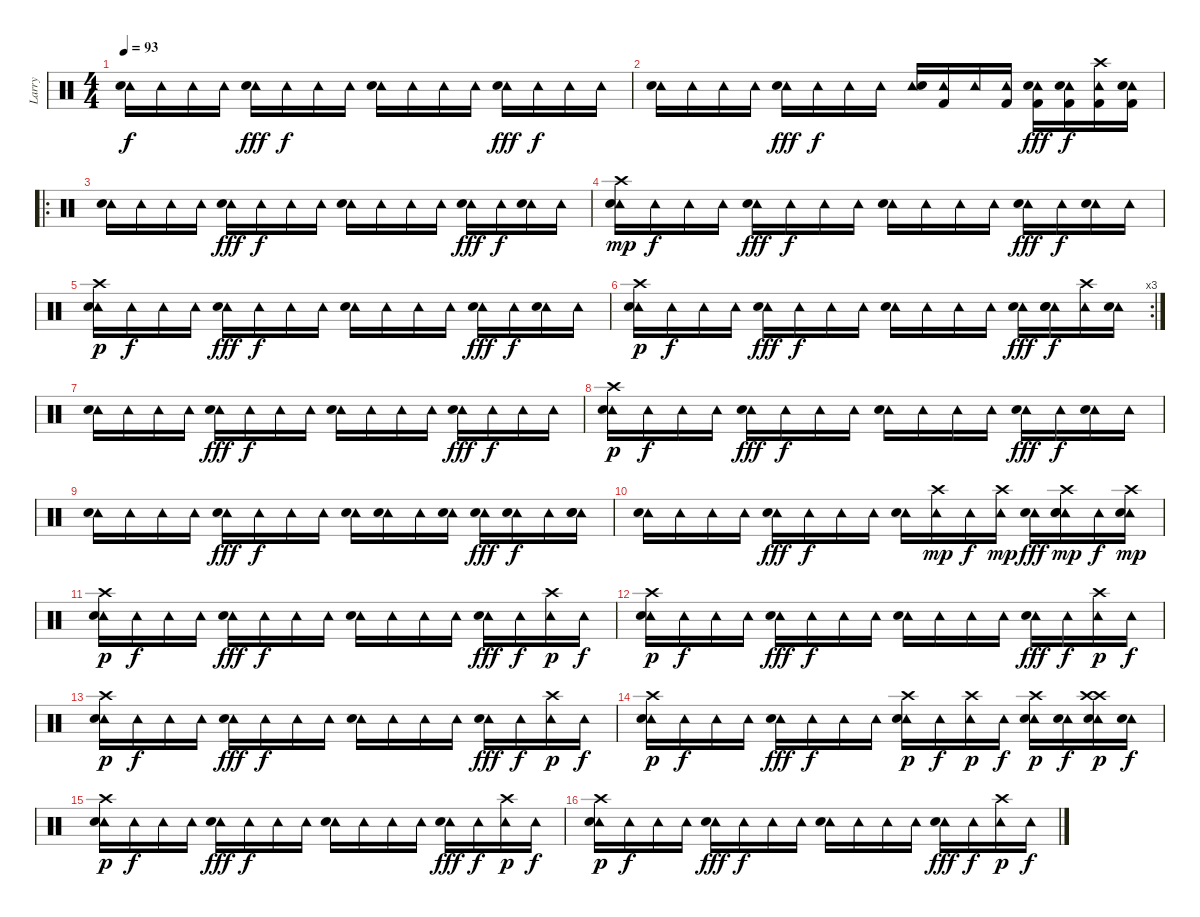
\track ("Larry" "Larry") {instrument percussion}
\staff {score}
\articulation defaults
\ts (4 4)
\tempo 93
\clef neutral
\ks c
("Tambourine (hit)" "Electric Snare (hit)").16{dy f} "Tambourine (hit)".16 "Tambourine (hit)".16 "Tambourine (hit)".16 ("Tambourine (hit)" "Electric Snare (hit)").16{dy fff} "Tambourine (hit)".16{dy f} "Tambourine (hit)".16 "Tambourine (hit)".16 ("Tambourine (hit)" "Electric Snare (hit)").16 "Tambourine (hit)".16 "Tambourine (hit)".16 "Tambourine (hit)".16 ("Tambourine (hit)" "Electric Snare (hit)").16{dy fff} "Tambourine (hit)".16{dy f} "Tambourine (hit)".16 "Tambourine (hit)".16 |
("Tambourine (hit)" "Electric Snare (hit)").16 "Tambourine (hit)".16 "Tambourine (hit)".16 "Tambourine (hit)".16 ("Tambourine (hit)" "Electric Snare (hit)").16{dy fff} "Tambourine (hit)".16{dy f} "Tambourine (hit)".16 "Tambourine (hit)".16 ("Tambourine (hit)" "Electric Snare (hit)").16 ("Tambourine (hit)" "Kick (hit) 2").16 "Tambourine (hit)".16 ("Tambourine (hit)" "Kick (hit) 2").16 ("Tambourine (hit)" "Electric Snare (hit)" "Kick (hit) 2").16{dy fff} ("Tambourine (hit)" "Kick (hit) 2" "Snare (hit) 2").16{dy f} ("Tambourine (hit)" "Kick (hit) 2" "Crash high (hit)").16 ("Tambourine (hit)" "Kick (hit) 2" "Snare (hit) 2").16 |
\ro
("Tambourine (hit)" "Electric Snare (hit)").16 "Tambourine (hit)".16 "Tambourine (hit)".16 "Tambourine (hit)".16 ("Tambourine (hit)" "Electric Snare (hit)").16{dy fff} "Tambourine (hit)".16{dy f} "Tambourine (hit)".16 "Tambourine (hit)".16 ("Tambourine (hit)" "Electric Snare (hit)").16 "Tambourine (hit)".16 "Tambourine (hit)".16 "Tambourine (hit)".16 ("Tambourine (hit)" "Electric Snare (hit)").16{dy fff} "Tambourine (hit)".16{dy f} ("Tambourine (hit)" "Electric Snare (hit)").16 "Tambourine (hit)".16 |
("Tambourine (hit)" "Crash high (hit)" "Electric Snare (hit)").16{dy mp} "Tambourine (hit)".16{dy f} "Tambourine (hit)".16 "Tambourine (hit)".16 ("Tambourine (hit)" "Electric Snare (hit)").16{dy fff} "Tambourine (hit)".16{dy f} "Tambourine (hit)".16 "Tambourine (hit)".16 ("Tambourine (hit)" "Electric Snare (hit)").16 "Tambourine (hit)".16 "Tambourine (hit)".16 "Tambourine (hit)".16 ("Tambourine (hit)" "Electric Snare (hit)").16{dy fff} "Tambourine (hit)".16{dy f} ("Tambourine (hit)" "Electric Snare (hit)").16 "Tambourine (hit)".16 |
("Tambourine (hit)" "Crash high (hit)" "Electric Snare (hit)").16{dy p} "Tambourine (hit)".16{dy f} "Tambourine (hit)".16 "Tambourine (hit)".16 ("Tambourine (hit)" "Electric Snare (hit)").16{dy fff} "Tambourine (hit)".16{dy f} "Tambourine (hit)".16 "Tambourine (hit)".16 ("Tambourine (hit)" "Electric Snare (hit)").16 "Tambourine (hit)".16 "Tambourine (hit)".16 "Tambourine (hit)".16 ("Tambourine (hit)" "Electric Snare (hit)").16{dy fff} "Tambourine (hit)".16{dy f} ("Tambourine (hit)" "Electric Snare (hit)").16 "Tambourine (hit)".16 |
\rc 3
("Tambourine (hit)" "Crash high (hit)" "Electric Snare (hit)").16{dy p} "Tambourine (hit)".16{dy f} "Tambourine (hit)".16 "Tambourine (hit)".16 ("Tambourine (hit)" "Electric Snare (hit)").16{dy fff} "Tambourine (hit)".16{dy f} "Tambourine (hit)".16 "Tambourine (hit)".16 ("Tambourine (hit)" "Electric Snare (hit)").16 "Tambourine (hit)".16 "Tambourine (hit)".16 "Tambourine (hit)".16 ("Tambourine (hit)" "Electric Snare (hit)").16{dy fff} ("Tambourine (hit)" "Snare (hit) 2" "Electric Snare (hit)").16{dy f} ("Tambourine (hit)" "Crash high (hit)").16 ("Tambourine (hit)" "Snare (hit) 2").16 |
("Tambourine (hit)" "Electric Snare (hit)").16 "Tambourine (hit)".16 "Tambourine (hit)".16 "Tambourine (hit)".16 ("Tambourine (hit)" "Electric Snare (hit)").16{dy fff} "Tambourine (hit)".16{dy f} "Tambourine (hit)".16 "Tambourine (hit)".16 ("Tambourine (hit)" "Electric Snare (hit)").16 "Tambourine (hit)".16 "Tambourine (hit)".16 "Tambourine (hit)".16 ("Tambourine (hit)" "Electric Snare (hit)").16{dy fff} "Tambourine (hit)".16{dy f} "Tambourine (hit)".16 "Tambourine (hit)".16 |
("Tambourine (hit)" "Crash high (hit)" "Electric Snare (hit)").16{dy p} "Tambourine (hit)".16{dy f} "Tambourine (hit)".16 "Tambourine (hit)".16 ("Tambourine (hit)" "Electric Snare (hit)").16{dy fff} "Tambourine (hit)".16{dy f} "Tambourine (hit)".16 "Tambourine (hit)".16 ("Tambourine (hit)" "Electric Snare (hit)").16 "Tambourine (hit)".16 "Tambourine (hit)".16 "Tambourine (hit)".16 ("Tambourine (hit)" "Electric Snare (hit)").16{dy fff} "Tambourine (hit)".16{dy f} ("Tambourine (hit)" "Electric Snare (hit)").16 "Tambourine (hit)".16 |
("Tambourine (hit)" "Electric Snare (hit)").16 "Tambourine (hit)".16 "Tambourine (hit)".16 "Tambourine (hit)".16 ("Tambourine (hit)" "Electric Snare (hit)").16{dy fff} "Tambourine (hit)".16{dy f} "Tambourine (hit)".16 "Tambourine (hit)".16 ("Tambourine (hit)" "Electric Snare (hit)").16 ("Tambourine (hit)" "Snare (hit) 2").16 "Tambourine (hit)".16 ("Tambourine (hit)" "Snare (hit) 2").16 ("Tambourine (hit)" "Electric Snare (hit)").16{dy fff} ("Tambourine (hit)" "Snare (hit) 2").16{dy f} "Tambourine (hit)".16 ("Tambourine (hit)" "Electric Snare (hit)" "Snare (hit) 2").16 |
("Tambourine (hit)" "Electric Snare (hit)").16 "Tambourine (hit)".16 "Tambourine (hit)".16 "Tambourine (hit)".16 ("Tambourine (hit)" "Electric Snare (hit)").16{dy fff} "Tambourine (hit)".16{dy f} "Tambourine (hit)".16 "Tambourine (hit)".16 ("Tambourine (hit)" "Electric Snare (hit)").16 ("Tambourine (hit)" "Crash high (hit)").16{dy mp} "Tambourine (hit)".16{dy f} ("Tambourine (hit)" "Crash high (hit)").16{dy mp} ("Tambourine (hit)" "Electric Snare (hit)").16{dy fff} ("Tambourine (hit)" "Snare (hit) 2" "Electric Snare (hit)" "Crash high (hit)").16{dy mp} "Tambourine (hit)".16{dy f} ("Tambourine (hit)" "Snare (hit) 2" "Crash high (hit)").16{dy mp} |
("Tambourine (hit)" "Crash high (hit)" "Electric Snare (hit)").16{dy p} "Tambourine (hit)".16{dy f} "Tambourine (hit)".16 "Tambourine (hit)".16 ("Tambourine (hit)" "Electric Snare (hit)").16{dy fff} "Tambourine (hit)".16{dy f} "Tambourine (hit)".16 "Tambourine (hit)".16 ("Tambourine (hit)" "Electric Snare (hit)").16 "Tambourine (hit)".16 "Tambourine (hit)".16 "Tambourine (hit)".16 ("Tambourine (hit)" "Electric Snare (hit)").16{dy fff} "Tambourine (hit)".16{dy f} ("Tambourine (hit)" "Crash high (hit)").16{dy p} "Tambourine (hit)".16{dy f} |
("Tambourine (hit)" "Crash high (hit)" "Electric Snare (hit)").16{dy p} "Tambourine (hit)".16{dy f} "Tambourine (hit)".16 "Tambourine (hit)".16 ("Tambourine (hit)" "Electric Snare (hit)").16{dy fff} "Tambourine (hit)".16{dy f} "Tambourine (hit)".16 "Tambourine (hit)".16 ("Tambourine (hit)" "Electric Snare (hit)").16 "Tambourine (hit)".16 "Tambourine (hit)".16 "Tambourine (hit)".16 ("Tambourine (hit)" "Electric Snare (hit)").16{dy fff} "Tambourine (hit)".16{dy f} ("Tambourine (hit)" "Crash high (hit)").16{dy p} "Tambourine (hit)".16{dy f} |
("Tambourine (hit)" "Crash high (hit)" "Electric Snare (hit)").16{dy p} "Tambourine (hit)".16{dy f} "Tambourine (hit)".16 "Tambourine (hit)".16 ("Tambourine (hit)" "Electric Snare (hit)").16{dy fff} "Tambourine (hit)".16{dy f} "Tambourine (hit)".16 "Tambourine (hit)".16 ("Tambourine (hit)" "Electric Snare (hit)").16 "Tambourine (hit)".16 "Tambourine (hit)".16 "Tambourine (hit)".16 ("Tambourine (hit)" "Electric Snare (hit)").16{dy fff} "Tambourine (hit)".16{dy f} ("Tambourine (hit)" "Crash high (hit)").16{dy p} "Tambourine (hit)".16{dy f} |
("Tambourine (hit)" "Crash high (hit)" "Electric Snare (hit)").16{dy p} "Tambourine (hit)".16{dy f} "Tambourine (hit)".16 "Tambourine (hit)".16 ("Tambourine (hit)" "Electric Snare (hit)").16{dy fff} "Tambourine (hit)".16{dy f} "Tambourine (hit)".16 "Tambourine (hit)".16 ("Tambourine (hit)" "Electric Snare (hit)" "Crash high (hit)").16{dy p} "Tambourine (hit)".16{dy f} ("Tambourine (hit)" "Crash high (hit)").16{dy p} "Tambourine (hit)".16{dy f} ("Tambourine (hit)" "Electric Snare (hit)" "Crash high (hit)").16{dy p} ("Tambourine (hit)" "Snare (hit) 2").16{dy f} ("Tambourine (hit)" "Crash high (hit)" "Electric Snare (hit)" "Crash high (hit)").16{dy p} ("Tambourine (hit)" "Electric Snare (hit)").16{dy f} |
("Tambourine (hit)" "Crash high (hit)" "Electric Snare (hit)").16{dy p} "Tambourine (hit)".16{dy f} "Tambourine (hit)".16 "Tambourine (hit)".16 ("Tambourine (hit)" "Electric Snare (hit)").16{dy fff} "Tambourine (hit)".16{dy f} "Tambourine (hit)".16 "Tambourine (hit)".16 ("Tambourine (hit)" "Electric Snare (hit)").16 "Tambourine (hit)".16 "Tambourine (hit)".16 "Tambourine (hit)".16 ("Tambourine (hit)" "Electric Snare (hit)").16{dy fff} "Tambourine (hit)".16{dy f} ("Tambourine (hit)" "Crash high (hit)").16{dy p} "Tambourine (hit)".16{dy f} |
("Tambourine (hit)" "Crash high (hit)" "Electric Snare (hit)").16{dy p} "Tambourine (hit)".16{dy f} "Tambourine (hit)".16 "Tambourine (hit)".16 ("Tambourine (hit)" "Electric Snare (hit)").16{dy fff} "Tambourine (hit)".16{dy f} "Tambourine (hit)".16 "Tambourine (hit)".16 ("Tambourine (hit)" "Electric Snare (hit)").16 "Tambourine (hit)".16 "Tambourine (hit)".16 "Tambourine (hit)".16 ("Tambourine (hit)" "Electric Snare (hit)").16{dy fff} "Tambourine (hit)".16{dy f} ("Tambourine (hit)" "Crash high (hit)").16{dy p} "Tambourine (hit)".16{dy f}
